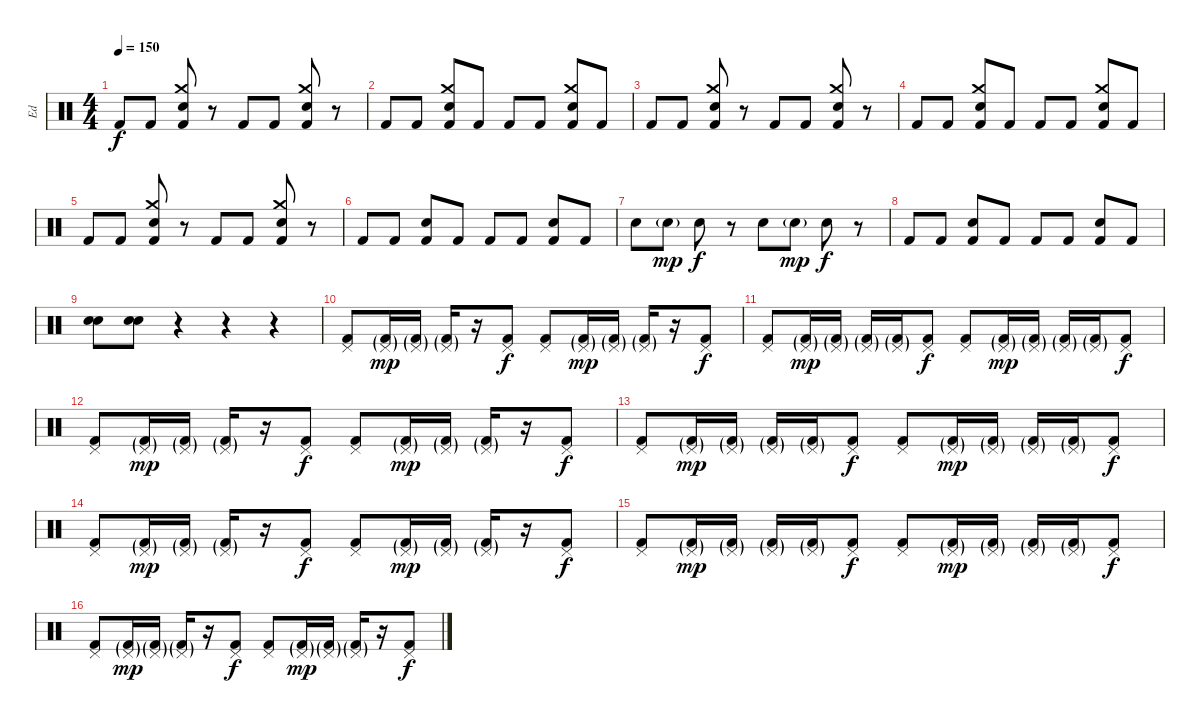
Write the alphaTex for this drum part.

\track ("Ed" "Ed") {instrument percussion}
\staff {score}
\articulation defaults
\ts (4 4)
\tempo 150
\clef neutral
\ks c "Kick (hit) 2".8{dy f} "Kick (hit) 2".8
("Crash medium (hit)" "Electric Snare (hit)" "Kick (hit) 2").8 r.8 "Kick (hit) 2".8 "Kick (hit) 2".8 ("Crash medium (hit)" "Electric Snare (hit)" "Kick (hit) 2").8 r.8 |
"Kick (hit) 2".8 "Kick (hit) 2".8 ("Crash medium (hit)" "Electric Snare (hit)" "Kick (hit) 2").8 "Kick (hit) 2".8 "Kick (hit) 2".8 "Kick (hit) 2".8 ("Crash medium (hit)" "Electric Snare (hit)" "Kick (hit) 2").8 "Kick (hit) 2".8 |
"Kick (hit) 2".8 "Kick (hit) 2".8 ("Crash medium (hit)" "Electric Snare (hit)" "Kick (hit) 2").8 r.8 "Kick (hit) 2".8 "Kick (hit) 2".8 ("Crash medium (hit)" "Electric Snare (hit)" "Kick (hit) 2").8 r.8 |
"Kick (hit) 2".8 "Kick (hit) 2".8 ("Crash medium (hit)" "Electric Snare (hit)" "Kick (hit) 2").8 "Kick (hit) 2".8 "Kick (hit) 2".8 "Kick (hit) 2".8 ("Crash medium (hit)" "Electric Snare (hit)" "Kick (hit) 2").8 "Kick (hit) 2".8 |
"Kick (hit) 2".8 "Kick (hit) 2".8 ("Crash medium (hit)" "Electric Snare (hit)" "Kick (hit) 2").8 r.8 "Kick (hit) 2".8 "Kick (hit) 2".8 ("Crash medium (hit)" "Electric Snare (hit)" "Kick (hit) 2").8 r.8 |
"Kick (hit) 2".8 "Kick (hit) 2".8 ("Electric Snare (hit)" "Kick (hit) 2").8 "Kick (hit) 2".8 "Kick (hit) 2".8 "Kick (hit) 2".8 ("Electric Snare (hit)" "Kick (hit) 2").8 "Kick (hit) 2".8 |
"Electric Snare (hit)".8 "Electric Snare (hit)"{g}.8{dy mp} "Electric Snare (hit)".8{dy f} r.8 "Electric Snare (hit)".8 "Electric Snare (hit)"{g}.8{dy mp} "Electric Snare (hit)".8{dy f} r.8 |
"Kick (hit) 2".8 "Kick (hit) 2".8 ("Electric Snare (hit)" "Kick (hit) 2").8 "Kick (hit) 2".8 "Kick (hit) 2".8 "Kick (hit) 2".8 ("Electric Snare (hit)" "Kick (hit) 2").8 "Kick (hit) 2".8 |
("Snare (hit) 2" "Electric Snare (hit)").8 ("Snare (hit) 2" "Electric Snare (hit)").8 r.4 r.4 r.4 |
("Pedal Hi-Hat (hit)" "Kick (hit) 2").8 ("Pedal Hi-Hat (hit)"{g} "Kick (hit) 2"{g}).16{dy mp} ("Pedal Hi-Hat (hit)"{g} "Kick (hit) 2"{g}).16 ("Pedal Hi-Hat (hit)"{g} "Kick (hit) 2"{g}).16 r.16 ("Pedal Hi-Hat (hit)" "Kick (hit) 2").8{dy f} ("Pedal Hi-Hat (hit)" "Kick (hit) 2").8 ("Pedal Hi-Hat (hit)"{g} "Kick (hit) 2"{g}).16{dy mp} ("Pedal Hi-Hat (hit)"{g} "Kick (hit) 2"{g}).16 ("Pedal Hi-Hat (hit)"{g} "Kick (hit) 2"{g}).16 r.16 ("Pedal Hi-Hat (hit)" "Kick (hit) 2").8{dy f} |
("Pedal Hi-Hat (hit)" "Kick (hit) 2").8 ("Pedal Hi-Hat (hit)"{g} "Kick (hit) 2"{g}).16{dy mp} ("Pedal Hi-Hat (hit)"{g} "Kick (hit) 2"{g}).16 ("Pedal Hi-Hat (hit)"{g} "Kick (hit) 2"{g}).16 ("Pedal Hi-Hat (hit)"{g} "Kick (hit) 2"{g}).16 ("Pedal Hi-Hat (hit)" "Kick (hit) 2").8{dy f} ("Pedal Hi-Hat (hit)" "Kick (hit) 2").8 ("Pedal Hi-Hat (hit)"{g} "Kick (hit) 2"{g}).16{dy mp} ("Pedal Hi-Hat (hit)"{g} "Kick (hit) 2"{g}).16 ("Pedal Hi-Hat (hit)"{g} "Kick (hit) 2"{g}).16 ("Pedal Hi-Hat (hit)"{g} "Kick (hit) 2"{g}).16 ("Pedal Hi-Hat (hit)" "Kick (hit) 2").8{dy f} |
("Pedal Hi-Hat (hit)" "Kick (hit) 2").8 ("Pedal Hi-Hat (hit)"{g} "Kick (hit) 2"{g}).16{dy mp} ("Pedal Hi-Hat (hit)"{g} "Kick (hit) 2"{g}).16 ("Pedal Hi-Hat (hit)"{g} "Kick (hit) 2"{g}).16 r.16 ("Pedal Hi-Hat (hit)" "Kick (hit) 2").8{dy f} ("Pedal Hi-Hat (hit)" "Kick (hit) 2").8 ("Pedal Hi-Hat (hit)"{g} "Kick (hit) 2"{g}).16{dy mp} ("Pedal Hi-Hat (hit)"{g} "Kick (hit) 2"{g}).16 ("Pedal Hi-Hat (hit)"{g} "Kick (hit) 2"{g}).16 r.16 ("Pedal Hi-Hat (hit)" "Kick (hit) 2").8{dy f} |
("Pedal Hi-Hat (hit)" "Kick (hit) 2").8 ("Pedal Hi-Hat (hit)"{g} "Kick (hit) 2"{g}).16{dy mp} ("Pedal Hi-Hat (hit)"{g} "Kick (hit) 2"{g}).16 ("Pedal Hi-Hat (hit)"{g} "Kick (hit) 2"{g}).16 ("Pedal Hi-Hat (hit)"{g} "Kick (hit) 2"{g}).16 ("Pedal Hi-Hat (hit)" "Kick (hit) 2").8{dy f} ("Pedal Hi-Hat (hit)" "Kick (hit) 2").8 ("Pedal Hi-Hat (hit)"{g} "Kick (hit) 2"{g}).16{dy mp} ("Pedal Hi-Hat (hit)"{g} "Kick (hit) 2"{g}).16 ("Pedal Hi-Hat (hit)"{g} "Kick (hit) 2"{g}).16 ("Pedal Hi-Hat (hit)"{g} "Kick (hit) 2"{g}).16 ("Pedal Hi-Hat (hit)" "Kick (hit) 2").8{dy f} |
("Pedal Hi-Hat (hit)" "Kick (hit) 2").8 ("Pedal Hi-Hat (hit)"{g} "Kick (hit) 2"{g}).16{dy mp} ("Pedal Hi-Hat (hit)"{g} "Kick (hit) 2"{g}).16 ("Pedal Hi-Hat (hit)"{g} "Kick (hit) 2"{g}).16 r.16 ("Pedal Hi-Hat (hit)" "Kick (hit) 2").8{dy f} ("Pedal Hi-Hat (hit)" "Kick (hit) 2").8 ("Pedal Hi-Hat (hit)"{g} "Kick (hit) 2"{g}).16{dy mp} ("Pedal Hi-Hat (hit)"{g} "Kick (hit) 2"{g}).16 ("Pedal Hi-Hat (hit)"{g} "Kick (hit) 2"{g}).16 r.16 ("Pedal Hi-Hat (hit)" "Kick (hit) 2").8{dy f} |
("Pedal Hi-Hat (hit)" "Kick (hit) 2").8 ("Pedal Hi-Hat (hit)"{g} "Kick (hit) 2"{g}).16{dy mp} ("Pedal Hi-Hat (hit)"{g} "Kick (hit) 2"{g}).16 ("Pedal Hi-Hat (hit)"{g} "Kick (hit) 2"{g}).16 ("Pedal Hi-Hat (hit)"{g} "Kick (hit) 2"{g}).16 ("Pedal Hi-Hat (hit)" "Kick (hit) 2").8{dy f} ("Pedal Hi-Hat (hit)" "Kick (hit) 2").8 ("Pedal Hi-Hat (hit)"{g} "Kick (hit) 2"{g}).16{dy mp} ("Pedal Hi-Hat (hit)"{g} "Kick (hit) 2"{g}).16 ("Pedal Hi-Hat (hit)"{g} "Kick (hit) 2"{g}).16 ("Pedal Hi-Hat (hit)"{g} "Kick (hit) 2"{g}).16 ("Pedal Hi-Hat (hit)" "Kick (hit) 2").8{dy f} |
("Pedal Hi-Hat (hit)" "Kick (hit) 2").8 ("Pedal Hi-Hat (hit)"{g} "Kick (hit) 2"{g}).16{dy mp} ("Pedal Hi-Hat (hit)"{g} "Kick (hit) 2"{g}).16 ("Pedal Hi-Hat (hit)"{g} "Kick (hit) 2"{g}).16 r.16 ("Pedal Hi-Hat (hit)" "Kick (hit) 2").8{dy f} ("Pedal Hi-Hat (hit)" "Kick (hit) 2").8 ("Pedal Hi-Hat (hit)"{g} "Kick (hit) 2"{g}).16{dy mp} ("Pedal Hi-Hat (hit)"{g} "Kick (hit) 2"{g}).16 ("Pedal Hi-Hat (hit)"{g} "Kick (hit) 2"{g}).16 r.16 ("Pedal Hi-Hat (hit)" "Kick (hit) 2").8{dy f}
